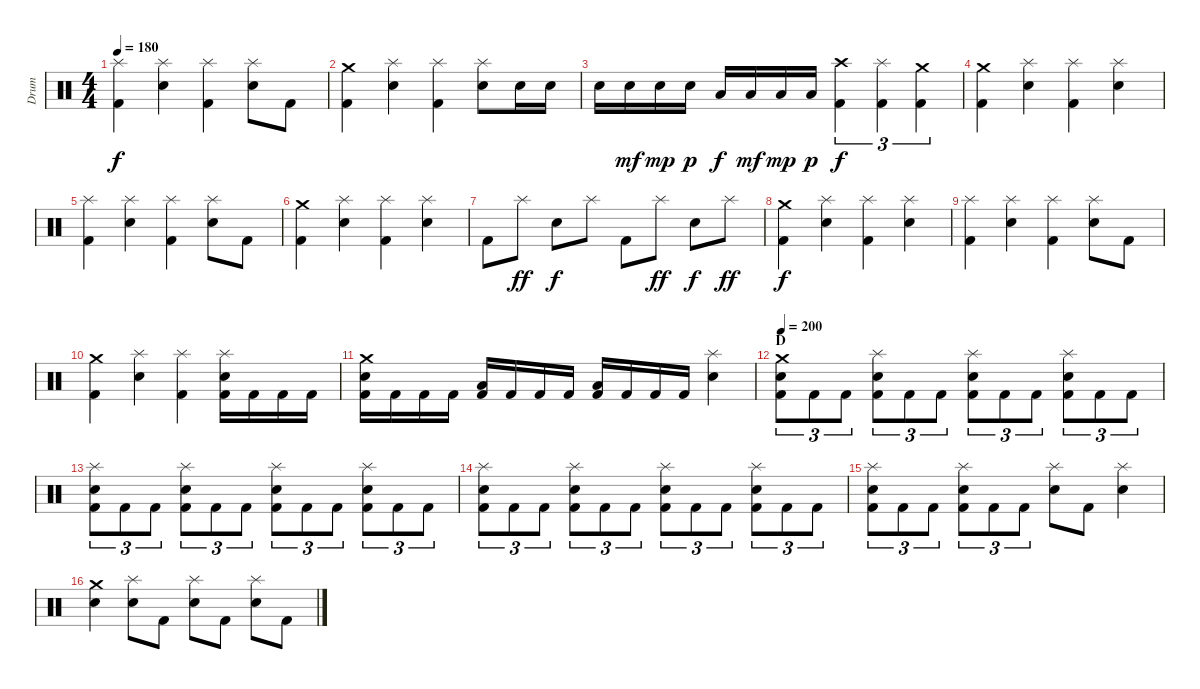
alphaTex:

\track ("Drum" "Drum") {instrument percussion}
\staff {score}
\articulation defaults
\ts (4 4)
\tempo 180
\clef neutral
\ks c
("Splash (hit)" "Kick (hit) 2").4{dy f} ("Splash (hit)" "Electric Snare (hit)").4 ("Splash (hit)" "Kick (hit) 2").4 ("Splash (hit)" "Electric Snare (hit)").8 "Kick (hit) 2".8 |
("Crash medium (hit)" "Kick (hit) 2").4 ("Splash (hit)" "Electric Snare (hit)").4 ("Splash (hit)" "Kick (hit) 2").4 ("Splash (hit)" "Electric Snare (hit)").8 "Electric Snare (hit)".16 "Electric Snare (hit)".16 |
"Electric Snare (hit)".16 "Electric Snare (hit)".16{dy mf} "Electric Snare (hit)".16{dy mp} "Electric Snare (hit)".16{dy p} "Low Tom (hit)".16{dy f} "Low Tom (hit)".16{dy mf} "Low Tom (hit)".16{dy mp} "Low Tom (hit)".16{dy p} ("Crash high (hit)" "Kick (hit) 2").4{tu (3 2) dy f} ("Splash (hit)" "Kick (hit) 2").4{tu (3 2)} ("Crash medium (hit)" "Kick (hit) 2").4{tu (3 2)} |
("Crash medium (hit)" "Kick (hit) 2").4 ("Splash (hit)" "Electric Snare (hit)").4 ("Splash (hit)" "Kick (hit) 2").4 ("Splash (hit)" "Electric Snare (hit)").4 |
("Splash (hit)" "Kick (hit) 2").4 ("Splash (hit)" "Electric Snare (hit)").4 ("Splash (hit)" "Kick (hit) 2").4 ("Splash (hit)" "Electric Snare (hit)").8 "Kick (hit) 2".8 |
("Crash medium (hit)" "Kick (hit) 2").4 ("Splash (hit)" "Electric Snare (hit)").4 ("Splash (hit)" "Kick (hit) 2").4 ("Splash (hit)" "Electric Snare (hit)").4 |
"Kick (hit) 2".8 "Splash (hit)".8{dy ff} "Electric Snare (hit)".8{dy f} "Splash (hit)".8 "Kick (hit) 2".8 "Splash (hit)".8{dy ff} "Electric Snare (hit)".8{dy f} "Splash (hit)".8{dy ff} |
("Crash medium (hit)" "Kick (hit) 2").4{dy f} ("Splash (hit)" "Electric Snare (hit)").4 ("Splash (hit)" "Kick (hit) 2").4 ("Splash (hit)" "Electric Snare (hit)").4 |
("Splash (hit)" "Kick (hit) 2").4 ("Splash (hit)" "Electric Snare (hit)").4 ("Splash (hit)" "Kick (hit) 2").4 ("Splash (hit)" "Electric Snare (hit)").8 "Kick (hit) 2".8 |
("Crash medium (hit)" "Kick (hit) 2").4 ("Splash (hit)" "Electric Snare (hit)").4 ("Splash (hit)" "Kick (hit) 2").4 ("Splash (hit)" "Electric Snare (hit)" "Kick (hit) 2").16 "Kick (hit) 2".16 "Kick (hit) 2".16 "Kick (hit) 2".16 |
("Crash medium (hit)" "Electric Snare (hit)" "Kick (hit) 2").16 "Kick (hit) 2".16 "Kick (hit) 2".16 "Kick (hit) 2".16 ("Low Tom (hit)" "Kick (hit) 2").16 "Kick (hit) 2".16 "Kick (hit) 2".16 "Kick (hit) 2".16 ("Low Tom (hit)" "Kick (hit) 2").16 "Kick (hit) 2".16 "Kick (hit) 2".16 "Kick (hit) 2".16 ("Splash (hit)" "Electric Snare (hit)").4 |
\section ("" "D")
\tempo 200
("Crash medium (hit)" "Electric Snare (hit)" "Kick (hit) 2").8{tu (3 2)} "Kick (hit) 2".8{tu (3 2)} "Kick (hit) 2".8{tu (3 2)} ("Splash (hit)" "Electric Snare (hit)" "Kick (hit) 2").8{tu (3 2)} "Kick (hit) 2".8{tu (3 2)} "Kick (hit) 2".8{tu (3 2)} ("Splash (hit)" "Electric Snare (hit)" "Kick (hit) 2").8{tu (3 2)} "Kick (hit) 2".8{tu (3 2)} "Kick (hit) 2".8{tu (3 2)} ("Splash (hit)" "Electric Snare (hit)" "Kick (hit) 2").8{tu (3 2)} "Kick (hit) 2".8{tu (3 2)} "Kick (hit) 2".8{tu (3 2)} |
("Splash (hit)" "Electric Snare (hit)" "Kick (hit) 2").8{tu (3 2)} "Kick (hit) 2".8{tu (3 2)} "Kick (hit) 2".8{tu (3 2)} ("Splash (hit)" "Electric Snare (hit)" "Kick (hit) 2").8{tu (3 2)} "Kick (hit) 2".8{tu (3 2)} "Kick (hit) 2".8{tu (3 2)} ("Splash (hit)" "Electric Snare (hit)" "Kick (hit) 2").8{tu (3 2)} "Kick (hit) 2".8{tu (3 2)} "Kick (hit) 2".8{tu (3 2)} ("Splash (hit)" "Electric Snare (hit)" "Kick (hit) 2").8{tu (3 2)} "Kick (hit) 2".8{tu (3 2)} "Kick (hit) 2".8{tu (3 2)} |
("Splash (hit)" "Electric Snare (hit)" "Kick (hit) 2").8{tu (3 2)} "Kick (hit) 2".8{tu (3 2)} "Kick (hit) 2".8{tu (3 2)} ("Splash (hit)" "Electric Snare (hit)" "Kick (hit) 2").8{tu (3 2)} "Kick (hit) 2".8{tu (3 2)} "Kick (hit) 2".8{tu (3 2)} ("Splash (hit)" "Electric Snare (hit)" "Kick (hit) 2").8{tu (3 2)} "Kick (hit) 2".8{tu (3 2)} "Kick (hit) 2".8{tu (3 2)} ("Splash (hit)" "Electric Snare (hit)" "Kick (hit) 2").8{tu (3 2)} "Kick (hit) 2".8{tu (3 2)} "Kick (hit) 2".8{tu (3 2)} |
("Splash (hit)" "Electric Snare (hit)" "Kick (hit) 2").8{tu (3 2)} "Kick (hit) 2".8{tu (3 2)} "Kick (hit) 2".8{tu (3 2)} ("Splash (hit)" "Electric Snare (hit)" "Kick (hit) 2").8{tu (3 2)} "Kick (hit) 2".8{tu (3 2)} "Kick (hit) 2".8{tu (3 2)} ("Splash (hit)" "Electric Snare (hit)").8 "Kick (hit) 2".8 ("Splash (hit)" "Electric Snare (hit)").4 |
("Crash medium (hit)" "Electric Snare (hit)").4 ("Splash (hit)" "Electric Snare (hit)").8 "Kick (hit) 2".8 ("Splash (hit)" "Electric Snare (hit)").8 "Kick (hit) 2".8 ("Splash (hit)" "Electric Snare (hit)").8 "Kick (hit) 2".8
